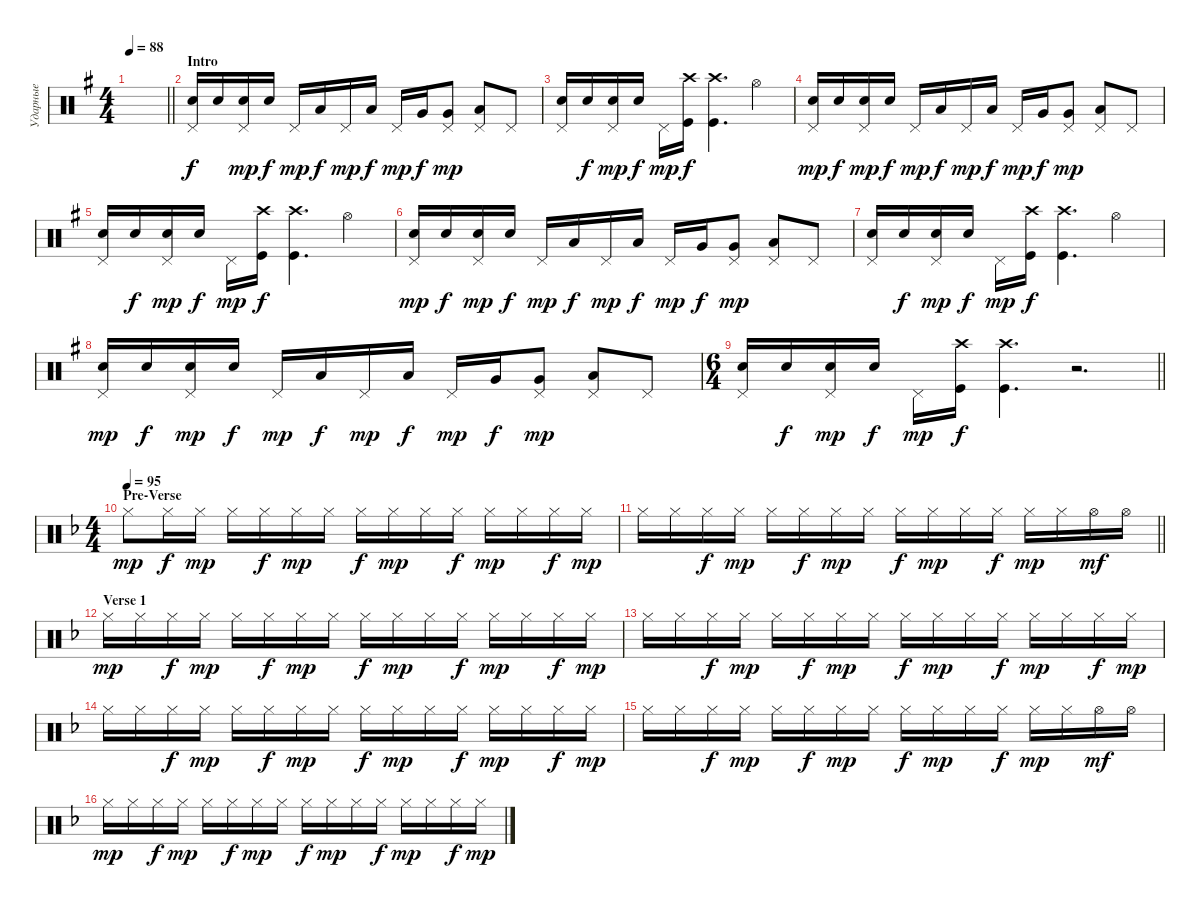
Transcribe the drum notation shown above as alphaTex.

\track ("Ударные" "Ударные") {instrument percussion}
\staff {score}
\articulation defaults
\ts (4 4)
\tempo 88
\clef neutral
\barLineRight lightlight
\ks eminor
|
\section ("" "Intro")
("Snare (hit) 2" "Pedal Hi-Hat (hit)").16 "Snare (hit) 2".16{dy f} ("Snare (hit) 2" "Pedal Hi-Hat (hit)").16{dy mp} "Snare (hit) 2".16{dy f} "Pedal Hi-Hat (hit)".16{dy mp} "Low Tom (hit)".16{dy f} "Pedal Hi-Hat (hit)".16{dy mp} "Low Tom (hit)".16{dy f} "Pedal Hi-Hat (hit)".16{dy mp} "Very Low Tom (hit)".16{dy f} ("Very Low Tom (hit)" "Pedal Hi-Hat (hit)").8{dy mp} ("Low Floor Tom (hit)" "Pedal Hi-Hat (hit)").8 "Pedal Hi-Hat (hit)".8 |
("Snare (hit) 2" "Pedal Hi-Hat (hit)").16 "Snare (hit) 2".16{dy f} ("Snare (hit) 2" "Pedal Hi-Hat (hit)").16{dy mp} "Snare (hit) 2".16{dy f} "Pedal Hi-Hat (hit)".16{dy mp} ("Kick (hit)" "Crash high (hit)").16{dy f} ("Kick (hit)" "Crash high (hit)").4{d} "Hi-Hat (open)".4 |
("Snare (hit) 2" "Pedal Hi-Hat (hit)").16{dy mp} "Snare (hit) 2".16{dy f} ("Snare (hit) 2" "Pedal Hi-Hat (hit)").16{dy mp} "Snare (hit) 2".16{dy f} "Pedal Hi-Hat (hit)".16{dy mp} "Low Tom (hit)".16{dy f} "Pedal Hi-Hat (hit)".16{dy mp} "Low Tom (hit)".16{dy f} "Pedal Hi-Hat (hit)".16{dy mp} "Very Low Tom (hit)".16{dy f} ("Very Low Tom (hit)" "Pedal Hi-Hat (hit)").8{dy mp} ("Low Floor Tom (hit)" "Pedal Hi-Hat (hit)").8 "Pedal Hi-Hat (hit)".8 |
("Snare (hit) 2" "Pedal Hi-Hat (hit)").16 "Snare (hit) 2".16{dy f} ("Snare (hit) 2" "Pedal Hi-Hat (hit)").16{dy mp} "Snare (hit) 2".16{dy f} "Pedal Hi-Hat (hit)".16{dy mp} ("Kick (hit)" "Crash high (hit)").16{dy f} ("Kick (hit)" "Crash high (hit)").4{d} "Hi-Hat (open)".4 |
("Snare (hit) 2" "Pedal Hi-Hat (hit)").16{dy mp} "Snare (hit) 2".16{dy f} ("Snare (hit) 2" "Pedal Hi-Hat (hit)").16{dy mp} "Snare (hit) 2".16{dy f} "Pedal Hi-Hat (hit)".16{dy mp} "Low Tom (hit)".16{dy f} "Pedal Hi-Hat (hit)".16{dy mp} "Low Tom (hit)".16{dy f} "Pedal Hi-Hat (hit)".16{dy mp} "Very Low Tom (hit)".16{dy f} ("Very Low Tom (hit)" "Pedal Hi-Hat (hit)").8{dy mp} ("Low Floor Tom (hit)" "Pedal Hi-Hat (hit)").8 "Pedal Hi-Hat (hit)".8 |
("Snare (hit) 2" "Pedal Hi-Hat (hit)").16 "Snare (hit) 2".16{dy f} ("Snare (hit) 2" "Pedal Hi-Hat (hit)").16{dy mp} "Snare (hit) 2".16{dy f} "Pedal Hi-Hat (hit)".16{dy mp} ("Kick (hit)" "Crash high (hit)").16{dy f} ("Kick (hit)" "Crash high (hit)").4{d} "Hi-Hat (open)".4 |
("Snare (hit) 2" "Pedal Hi-Hat (hit)").16{dy mp} "Snare (hit) 2".16{dy f} ("Snare (hit) 2" "Pedal Hi-Hat (hit)").16{dy mp} "Snare (hit) 2".16{dy f} "Pedal Hi-Hat (hit)".16{dy mp} "Low Tom (hit)".16{dy f} "Pedal Hi-Hat (hit)".16{dy mp} "Low Tom (hit)".16{dy f} "Pedal Hi-Hat (hit)".16{dy mp} "Very Low Tom (hit)".16{dy f} ("Very Low Tom (hit)" "Pedal Hi-Hat (hit)").8{dy mp} ("Low Floor Tom (hit)" "Pedal Hi-Hat (hit)").8 "Pedal Hi-Hat (hit)".8 |
\ts (6 4)
\barLineRight lightlight
("Snare (hit) 2" "Pedal Hi-Hat (hit)").16 "Snare (hit) 2".16{dy f} ("Snare (hit) 2" "Pedal Hi-Hat (hit)").16{dy mp} "Snare (hit) 2".16{dy f} "Pedal Hi-Hat (hit)".16{dy mp} ("Kick (hit)" "Crash high (hit)").16{dy f} ("Kick (hit)" "Crash high (hit)").4{d} r.2{d} |
\ts (4 4)
\section ("" "Pre-Verse")
\tempo 95
\ks dminor "Hi-Hat (closed)".8{dy mp} "Hi-Hat (closed)".16{dy f} "Hi-Hat (closed)".16{dy mp} "Hi-Hat (closed)".16 "Hi-Hat (closed)".16{dy f} "Hi-Hat (closed)".16{dy mp} "Hi-Hat (closed)".16 "Hi-Hat (closed)".16{dy f} "Hi-Hat (closed)".16{dy mp} "Hi-Hat (closed)".16 "Hi-Hat (closed)".16{dy f} "Hi-Hat (closed)".16{dy mp} "Hi-Hat (closed)".16 "Hi-Hat (closed)".16{dy f} "Hi-Hat (closed)".16{dy mp}
|
\barLineRight lightlight "Hi-Hat (closed)".16 "Hi-Hat (closed)".16 "Hi-Hat (closed)".16{dy f} "Hi-Hat (closed)".16{dy mp} "Hi-Hat (closed)".16 "Hi-Hat (closed)".16{dy f} "Hi-Hat (closed)".16{dy mp} "Hi-Hat (closed)".16 "Hi-Hat (closed)".16{dy f} "Hi-Hat (closed)".16{dy mp} "Hi-Hat (closed)".16 "Hi-Hat (closed)".16{dy f} "Hi-Hat (closed)".16{dy mp} "Hi-Hat (closed)".16 "Hi-Hat (open)".16{dy mf} "Hi-Hat (open)".16
|
\section ("" "Verse 1")
"Hi-Hat (closed)".16{dy mp} "Hi-Hat (closed)".16 "Hi-Hat (closed)".16{dy f} "Hi-Hat (closed)".16{dy mp} "Hi-Hat (closed)".16 "Hi-Hat (closed)".16{dy f} "Hi-Hat (closed)".16{dy mp} "Hi-Hat (closed)".16 "Hi-Hat (closed)".16{dy f} "Hi-Hat (closed)".16{dy mp} "Hi-Hat (closed)".16 "Hi-Hat (closed)".16{dy f} "Hi-Hat (closed)".16{dy mp} "Hi-Hat (closed)".16 "Hi-Hat (closed)".16{dy f} "Hi-Hat (closed)".16{dy mp} |
"Hi-Hat (closed)".16 "Hi-Hat (closed)".16 "Hi-Hat (closed)".16{dy f} "Hi-Hat (closed)".16{dy mp} "Hi-Hat (closed)".16 "Hi-Hat (closed)".16{dy f} "Hi-Hat (closed)".16{dy mp} "Hi-Hat (closed)".16 "Hi-Hat (closed)".16{dy f} "Hi-Hat (closed)".16{dy mp} "Hi-Hat (closed)".16 "Hi-Hat (closed)".16{dy f} "Hi-Hat (closed)".16{dy mp} "Hi-Hat (closed)".16 "Hi-Hat (closed)".16{dy f} "Hi-Hat (closed)".16{dy mp} |
"Hi-Hat (closed)".16 "Hi-Hat (closed)".16 "Hi-Hat (closed)".16{dy f} "Hi-Hat (closed)".16{dy mp} "Hi-Hat (closed)".16 "Hi-Hat (closed)".16{dy f} "Hi-Hat (closed)".16{dy mp} "Hi-Hat (closed)".16 "Hi-Hat (closed)".16{dy f} "Hi-Hat (closed)".16{dy mp} "Hi-Hat (closed)".16 "Hi-Hat (closed)".16{dy f} "Hi-Hat (closed)".16{dy mp} "Hi-Hat (closed)".16 "Hi-Hat (closed)".16{dy f} "Hi-Hat (closed)".16{dy mp} |
"Hi-Hat (closed)".16 "Hi-Hat (closed)".16 "Hi-Hat (closed)".16{dy f} "Hi-Hat (closed)".16{dy mp} "Hi-Hat (closed)".16 "Hi-Hat (closed)".16{dy f} "Hi-Hat (closed)".16{dy mp} "Hi-Hat (closed)".16 "Hi-Hat (closed)".16{dy f} "Hi-Hat (closed)".16{dy mp} "Hi-Hat (closed)".16 "Hi-Hat (closed)".16{dy f} "Hi-Hat (closed)".16{dy mp} "Hi-Hat (closed)".16 "Hi-Hat (open)".16{dy mf} "Hi-Hat (open)".16 |
"Hi-Hat (closed)".16{dy mp} "Hi-Hat (closed)".16 "Hi-Hat (closed)".16{dy f} "Hi-Hat (closed)".16{dy mp} "Hi-Hat (closed)".16 "Hi-Hat (closed)".16{dy f} "Hi-Hat (closed)".16{dy mp} "Hi-Hat (closed)".16 "Hi-Hat (closed)".16{dy f} "Hi-Hat (closed)".16{dy mp} "Hi-Hat (closed)".16 "Hi-Hat (closed)".16{dy f} "Hi-Hat (closed)".16{dy mp} "Hi-Hat (closed)".16 "Hi-Hat (closed)".16{dy f} "Hi-Hat (closed)".16{dy mp}
